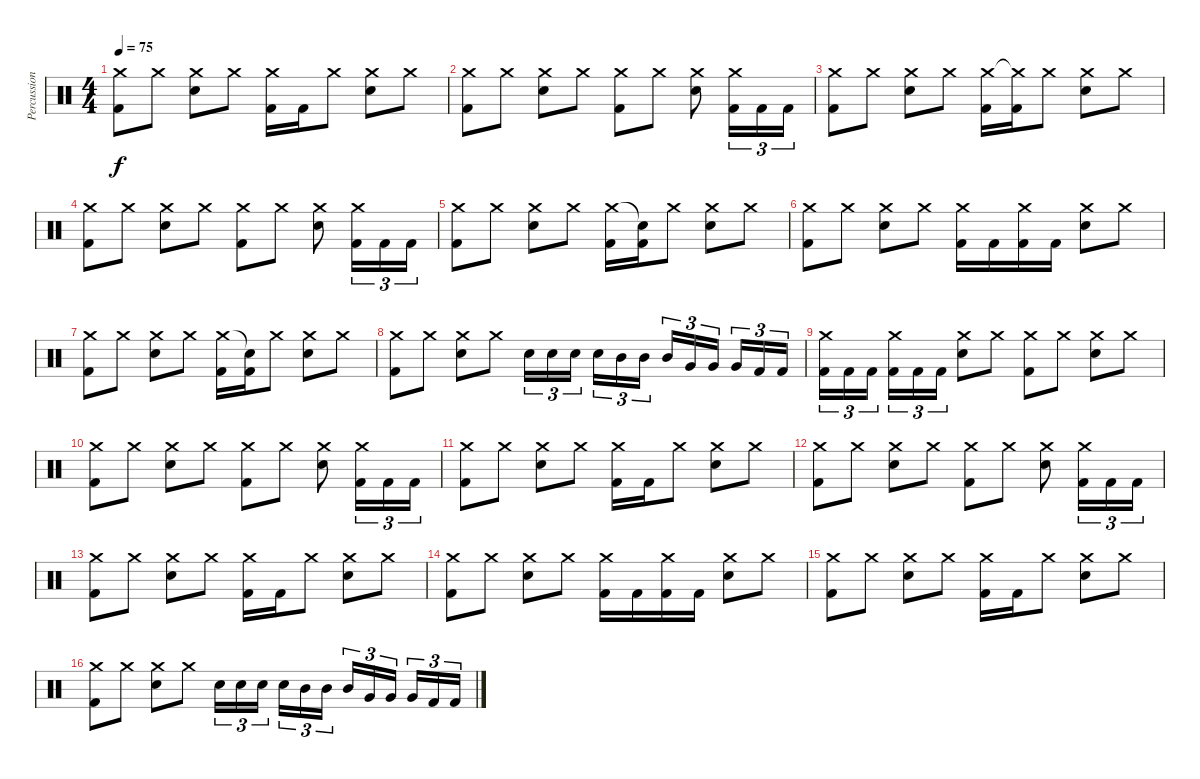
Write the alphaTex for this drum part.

\track ("Percussion" "Percussion") {instrument percussion}
\staff {score}
\articulation defaults
\ts (4 4)
\tempo 75
\clef neutral
\ks c
("Crash medium (hit)" "Kick (hit) 2").8{dy f} "Crash medium (hit)".8 ("Crash medium (hit)" "Electric Snare (hit)").8 "Crash medium (hit)".8 ("Crash medium (hit)" "Kick (hit) 2").16 "Kick (hit) 2".16 "Crash medium (hit)".8 ("Crash medium (hit)" "Electric Snare (hit)").8 "Crash medium (hit)".8 |
("Crash medium (hit)" "Kick (hit) 2").8 "Crash medium (hit)".8 ("Crash medium (hit)" "Electric Snare (hit)").8 "Crash medium (hit)".8 ("Crash medium (hit)" "Kick (hit) 2").8 "Crash medium (hit)".8 ("Crash medium (hit)" "Electric Snare (hit)").8 ("Crash medium (hit)" "Kick (hit) 2").16{tu (3 2)} "Kick (hit) 2".16{tu (3 2)} "Kick (hit) 2".16{tu (3 2)} |
("Crash medium (hit)" "Kick (hit) 2").8 "Crash medium (hit)".8 ("Crash medium (hit)" "Electric Snare (hit)").8 "Crash medium (hit)".8 ("Crash medium (hit)" "Kick (hit) 2").16 ("Crash medium (hit)"{t} "Kick (hit) 2").16 "Crash medium (hit)".8 ("Crash medium (hit)" "Electric Snare (hit)").8 "Crash medium (hit)".8 |
("Crash medium (hit)" "Kick (hit) 2").8 "Crash medium (hit)".8 ("Crash medium (hit)" "Electric Snare (hit)").8 "Crash medium (hit)".8 ("Crash medium (hit)" "Kick (hit) 2").8 "Crash medium (hit)".8 ("Crash medium (hit)" "Electric Snare (hit)").8 ("Crash medium (hit)" "Kick (hit) 2").16{tu (3 2)} "Kick (hit) 2".16{tu (3 2)} "Kick (hit) 2".16{tu (3 2)} |
("Crash medium (hit)" "Kick (hit) 2").8 "Crash medium (hit)".8 ("Crash medium (hit)" "Electric Snare (hit)").8 "Crash medium (hit)".8 ("Crash medium (hit)" "Kick (hit) 2").16 ("Snare (hit)"{t} "Kick (hit) 2").16 "Crash medium (hit)".8 ("Crash medium (hit)" "Electric Snare (hit)").8 "Crash medium (hit)".8 |
("Crash medium (hit)" "Kick (hit) 2").8 "Crash medium (hit)".8 ("Crash medium (hit)" "Electric Snare (hit)").8 "Crash medium (hit)".8 ("Crash medium (hit)" "Kick (hit) 2").16 "Kick (hit) 2".16 ("Crash medium (hit)" "Kick (hit) 2").16 "Kick (hit) 2".16 ("Crash medium (hit)" "Electric Snare (hit)").8 "Crash medium (hit)".8 |
("Crash medium (hit)" "Kick (hit) 2").8 "Crash medium (hit)".8 ("Crash medium (hit)" "Electric Snare (hit)").8 "Crash medium (hit)".8 ("Crash medium (hit)" "Kick (hit) 2").16 ("Snare (hit)"{t} "Kick (hit) 2").16 "Crash medium (hit)".8 ("Crash medium (hit)" "Electric Snare (hit)").8 "Crash medium (hit)".8 |
("Crash medium (hit)" "Kick (hit) 2").8 "Crash medium (hit)".8 ("Crash medium (hit)" "Electric Snare (hit)").8 "Crash medium (hit)".8 "Electric Snare (hit)".16{tu (3 2)} "Electric Snare (hit)".16{tu (3 2)} "Electric Snare (hit)".16{tu (3 2) beam splitsecondary} "Electric Snare (hit)".16{tu (3 2)} "Mid Tom (hit)".16{tu (3 2)} "Mid Tom (hit)".16{tu (3 2)} "Mid Tom (hit)".16{tu (3 2)} "Very Low Tom (hit)".16{tu (3 2)} "Very Low Tom (hit)".16{tu (3 2) beam splitsecondary} "Very Low Tom (hit)".16{tu (3 2)} "Kick (hit) 2".16{tu (3 2)} "Kick (hit) 2".16{tu (3 2)} |
("Crash medium (hit)" "Kick (hit) 2").16{tu (3 2)} "Kick (hit) 2".16{tu (3 2)} "Kick (hit) 2".16{tu (3 2) beam splitsecondary} ("Crash medium (hit)" "Kick (hit) 2").16{tu (3 2)} "Kick (hit) 2".16{tu (3 2)} "Kick (hit) 2".16{tu (3 2)} ("Crash medium (hit)" "Electric Snare (hit)").8 "Crash medium (hit)".8 ("Crash medium (hit)" "Kick (hit) 2").8 "Crash medium (hit)".8 ("Crash medium (hit)" "Electric Snare (hit)").8 "Crash medium (hit)".8 |
("Crash medium (hit)" "Kick (hit) 2").8 "Crash medium (hit)".8 ("Crash medium (hit)" "Electric Snare (hit)").8 "Crash medium (hit)".8 ("Crash medium (hit)" "Kick (hit) 2").8 "Crash medium (hit)".8 ("Crash medium (hit)" "Electric Snare (hit)").8 ("Crash medium (hit)" "Kick (hit) 2").16{tu (3 2)} "Kick (hit) 2".16{tu (3 2)} "Kick (hit) 2".16{tu (3 2)} |
("Crash medium (hit)" "Kick (hit) 2").8 "Crash medium (hit)".8 ("Crash medium (hit)" "Electric Snare (hit)").8 "Crash medium (hit)".8 ("Crash medium (hit)" "Kick (hit) 2").16 "Kick (hit) 2".16 "Crash medium (hit)".8 ("Crash medium (hit)" "Electric Snare (hit)").8 "Crash medium (hit)".8 |
("Crash medium (hit)" "Kick (hit) 2").8 "Crash medium (hit)".8 ("Crash medium (hit)" "Electric Snare (hit)").8 "Crash medium (hit)".8 ("Crash medium (hit)" "Kick (hit) 2").8 "Crash medium (hit)".8 ("Crash medium (hit)" "Electric Snare (hit)").8 ("Crash medium (hit)" "Kick (hit) 2").16{tu (3 2)} "Kick (hit) 2".16{tu (3 2)} "Kick (hit) 2".16{tu (3 2)} |
("Crash medium (hit)" "Kick (hit) 2").8 "Crash medium (hit)".8 ("Crash medium (hit)" "Electric Snare (hit)").8 "Crash medium (hit)".8 ("Crash medium (hit)" "Kick (hit) 2").16 "Kick (hit) 2".16 "Crash medium (hit)".8 ("Crash medium (hit)" "Electric Snare (hit)").8 "Crash medium (hit)".8 |
("Crash medium (hit)" "Kick (hit) 2").8 "Crash medium (hit)".8 ("Crash medium (hit)" "Electric Snare (hit)").8 "Crash medium (hit)".8 ("Crash medium (hit)" "Kick (hit) 2").16 "Kick (hit) 2".16 ("Crash medium (hit)" "Kick (hit) 2").16 "Kick (hit) 2".16 ("Crash medium (hit)" "Electric Snare (hit)").8 "Crash medium (hit)".8 |
("Crash medium (hit)" "Kick (hit) 2").8 "Crash medium (hit)".8 ("Crash medium (hit)" "Electric Snare (hit)").8 "Crash medium (hit)".8 ("Crash medium (hit)" "Kick (hit) 2").16 "Kick (hit) 2".16 "Crash medium (hit)".8 ("Crash medium (hit)" "Electric Snare (hit)").8 "Crash medium (hit)".8 |
("Crash medium (hit)" "Kick (hit) 2").8 "Crash medium (hit)".8 ("Crash medium (hit)" "Electric Snare (hit)").8 "Crash medium (hit)".8 "Electric Snare (hit)".16{tu (3 2)} "Electric Snare (hit)".16{tu (3 2)} "Electric Snare (hit)".16{tu (3 2) beam splitsecondary} "Electric Snare (hit)".16{tu (3 2)} "Mid Tom (hit)".16{tu (3 2)} "Mid Tom (hit)".16{tu (3 2)} "Mid Tom (hit)".16{tu (3 2)} "Very Low Tom (hit)".16{tu (3 2)} "Very Low Tom (hit)".16{tu (3 2) beam splitsecondary} "Very Low Tom (hit)".16{tu (3 2)} "Kick (hit) 2".16{tu (3 2)} "Kick (hit) 2".16{tu (3 2)}
